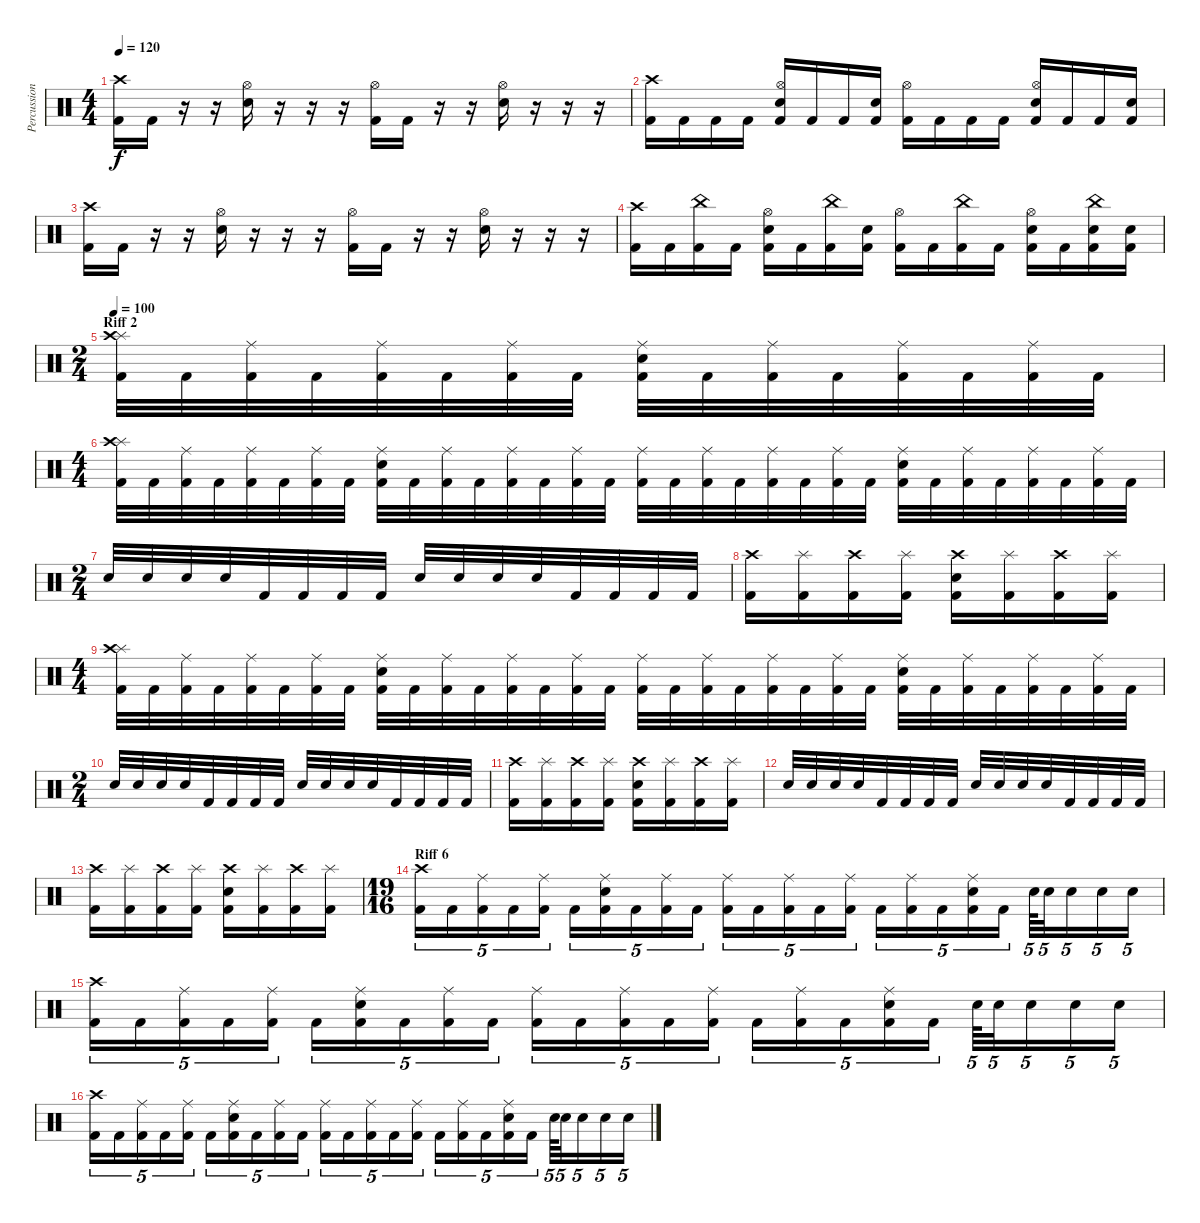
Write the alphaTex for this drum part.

\track ("Percussion" "Percussion") {instrument percussion}
\staff {score}
\articulation defaults
\ts (4 4)
\tempo 120
\clef neutral
\ks c
("Crash high (hit)" "Kick (hit) 2").16{dy f} "Kick (hit) 2".16 r.16 r.16 ("Hi-Hat (open)" "Electric Snare (hit)").16 r.16 r.16 r.16 ("Hi-Hat (open)" "Kick (hit) 2").16 "Kick (hit) 2".16 r.16 r.16 ("Hi-Hat (open)" "Electric Snare (hit)").16 r.16 r.16 r.16 |
("Crash high (hit)" "Kick (hit) 2").16 "Kick (hit) 2".16 "Kick (hit) 2".16 "Kick (hit) 2".16 ("Hi-Hat (open)" "Electric Snare (hit)" "Kick (hit) 2").16 "Kick (hit) 2".16 "Kick (hit) 2".16 ("Electric Snare (hit)" "Kick (hit) 2").16 ("Hi-Hat (open)" "Kick (hit) 2").16 "Kick (hit) 2".16 "Kick (hit) 2".16 "Kick (hit) 2".16 ("Hi-Hat (open)" "Electric Snare (hit)" "Kick (hit) 2").16 "Kick (hit) 2".16 "Kick (hit) 2".16 ("Electric Snare (hit)" "Kick (hit) 2").16 |
("Crash high (hit)" "Kick (hit) 2").16 "Kick (hit) 2".16 r.16 r.16 ("Hi-Hat (open)" "Electric Snare (hit)").16 r.16 r.16 r.16 ("Hi-Hat (open)" "Kick (hit) 2").16 "Kick (hit) 2".16 r.16 r.16 ("Hi-Hat (open)" "Electric Snare (hit)").16 r.16 r.16 r.16 |
("Crash high (hit)" "Kick (hit) 2").16 "Kick (hit) 2".16 ("China (hit)" "Kick (hit) 2").16 "Kick (hit) 2".16 ("Hi-Hat (open)" "Electric Snare (hit)" "Kick (hit) 2").16 "Kick (hit) 2".16 ("China (hit)" "Kick (hit) 2").16 ("Electric Snare (hit)" "Kick (hit) 2").16 ("Hi-Hat (open)" "Kick (hit) 2").16 "Kick (hit) 2".16 ("China (hit)" "Kick (hit) 2").16 "Kick (hit) 2".16 ("Hi-Hat (open)" "Electric Snare (hit)" "Kick (hit) 2").16 "Kick (hit) 2".16 ("China (hit)" "Electric Snare (hit)" "Kick (hit) 2").16 ("Electric Snare (hit)" "Kick (hit) 2").16 |
\ts (2 4)
\section ("" "Riff 2")
\tempo 100
("Splash (hit)" "Crash high (hit)" "Kick (hit) 2").32 "Kick (hit) 2".32 ("Ride (middle)" "Kick (hit) 2").32 "Kick (hit) 2".32 ("Ride (middle)" "Kick (hit) 2").32 "Kick (hit) 2".32 ("Ride (middle)" "Kick (hit) 2").32 "Kick (hit) 2".32 ("Ride (middle)" "Electric Snare (hit)" "Kick (hit) 2").32 "Kick (hit) 2".32 ("Ride (middle)" "Kick (hit) 2").32 "Kick (hit) 2".32 ("Ride (middle)" "Kick (hit) 2").32 "Kick (hit) 2".32 ("Ride (middle)" "Kick (hit) 2").32 "Kick (hit) 2".32 |
\ts (4 4)
("Splash (hit)" "Crash high (hit)" "Kick (hit) 2").32 "Kick (hit) 2".32 ("Ride (middle)" "Kick (hit) 2").32 "Kick (hit) 2".32 ("Ride (middle)" "Kick (hit) 2").32 "Kick (hit) 2".32 ("Ride (middle)" "Kick (hit) 2").32 "Kick (hit) 2".32 ("Ride (middle)" "Electric Snare (hit)" "Kick (hit) 2").32 "Kick (hit) 2".32 ("Ride (middle)" "Kick (hit) 2").32 "Kick (hit) 2".32 ("Ride (middle)" "Kick (hit) 2").32 "Kick (hit) 2".32 ("Ride (middle)" "Kick (hit) 2").32 "Kick (hit) 2".32 ("Ride (middle)" "Kick (hit) 2").32 "Kick (hit) 2".32 ("Ride (middle)" "Kick (hit) 2").32 "Kick (hit) 2".32 ("Ride (middle)" "Kick (hit) 2").32 "Kick (hit) 2".32 ("Ride (middle)" "Kick (hit) 2").32 "Kick (hit) 2".32 ("Ride (middle)" "Electric Snare (hit)" "Kick (hit) 2").32 "Kick (hit) 2".32 ("Ride (middle)" "Kick (hit) 2").32 "Kick (hit) 2".32 ("Ride (middle)" "Kick (hit) 2").32 "Kick (hit) 2".32 ("Ride (middle)" "Kick (hit) 2").32 "Kick (hit) 2".32 |
\ts (2 4)
"Electric Snare (hit)".32 "Electric Snare (hit)".32 "Electric Snare (hit)".32 "Electric Snare (hit)".32 "Kick (hit) 2".32 "Kick (hit) 2".32 "Kick (hit) 2".32 "Kick (hit) 2".32 "Electric Snare (hit)".32 "Electric Snare (hit)".32 "Electric Snare (hit)".32 "Electric Snare (hit)".32 "Kick (hit) 2".32 "Kick (hit) 2".32 "Kick (hit) 2".32 "Kick (hit) 2".32 |
("Crash high (hit)" "Kick (hit) 2").16 ("Splash (hit)" "Kick (hit) 2").16 ("Crash high (hit)" "Kick (hit) 2").16 ("Splash (hit)" "Kick (hit) 2").16 ("Crash high (hit)" "Electric Snare (hit)" "Kick (hit) 2").16 ("Splash (hit)" "Kick (hit) 2").16 ("Crash high (hit)" "Kick (hit) 2").16 ("Splash (hit)" "Kick (hit) 2").16 |
\ts (4 4)
("Splash (hit)" "Crash high (hit)" "Kick (hit) 2").32 "Kick (hit) 2".32 ("Ride (middle)" "Kick (hit) 2").32 "Kick (hit) 2".32 ("Ride (middle)" "Kick (hit) 2").32 "Kick (hit) 2".32 ("Ride (middle)" "Kick (hit) 2").32 "Kick (hit) 2".32 ("Ride (middle)" "Electric Snare (hit)" "Kick (hit) 2").32 "Kick (hit) 2".32 ("Ride (middle)" "Kick (hit) 2").32 "Kick (hit) 2".32 ("Ride (middle)" "Kick (hit) 2").32 "Kick (hit) 2".32 ("Ride (middle)" "Kick (hit) 2").32 "Kick (hit) 2".32 ("Ride (middle)" "Kick (hit) 2").32 "Kick (hit) 2".32 ("Ride (middle)" "Kick (hit) 2").32 "Kick (hit) 2".32 ("Ride (middle)" "Kick (hit) 2").32 "Kick (hit) 2".32 ("Ride (middle)" "Kick (hit) 2").32 "Kick (hit) 2".32 ("Ride (middle)" "Electric Snare (hit)" "Kick (hit) 2").32 "Kick (hit) 2".32 ("Ride (middle)" "Kick (hit) 2").32 "Kick (hit) 2".32 ("Ride (middle)" "Kick (hit) 2").32 "Kick (hit) 2".32 ("Ride (middle)" "Kick (hit) 2").32 "Kick (hit) 2".32 |
\ts (2 4)
"Electric Snare (hit)".32 "Electric Snare (hit)".32 "Electric Snare (hit)".32 "Electric Snare (hit)".32 "Kick (hit) 2".32 "Kick (hit) 2".32 "Kick (hit) 2".32 "Kick (hit) 2".32 "Electric Snare (hit)".32 "Electric Snare (hit)".32 "Electric Snare (hit)".32 "Electric Snare (hit)".32 "Kick (hit) 2".32 "Kick (hit) 2".32 "Kick (hit) 2".32 "Kick (hit) 2".32 |
("Crash high (hit)" "Kick (hit) 2").16 ("Splash (hit)" "Kick (hit) 2").16 ("Crash high (hit)" "Kick (hit) 2").16 ("Splash (hit)" "Kick (hit) 2").16 ("Crash high (hit)" "Electric Snare (hit)" "Kick (hit) 2").16 ("Splash (hit)" "Kick (hit) 2").16 ("Crash high (hit)" "Kick (hit) 2").16 ("Splash (hit)" "Kick (hit) 2").16 |
"Electric Snare (hit)".32 "Electric Snare (hit)".32 "Electric Snare (hit)".32 "Electric Snare (hit)".32 "Kick (hit) 2".32 "Kick (hit) 2".32 "Kick (hit) 2".32 "Kick (hit) 2".32 "Electric Snare (hit)".32 "Electric Snare (hit)".32 "Electric Snare (hit)".32 "Electric Snare (hit)".32 "Kick (hit) 2".32 "Kick (hit) 2".32 "Kick (hit) 2".32 "Kick (hit) 2".32 |
("Crash high (hit)" "Kick (hit) 2").16 ("Splash (hit)" "Kick (hit) 2").16 ("Crash high (hit)" "Kick (hit) 2").16 ("Splash (hit)" "Kick (hit) 2").16 ("Crash high (hit)" "Electric Snare (hit)" "Kick (hit) 2").16 ("Splash (hit)" "Kick (hit) 2").16 ("Crash high (hit)" "Kick (hit) 2").16 ("Splash (hit)" "Kick (hit) 2").16 |
\ts (19 16)
\section ("" "Riff 6")
("Crash high (hit)" "Kick (hit) 2").16{tu (5 4)} "Kick (hit) 2".16{tu (5 4)} ("Ride (middle)" "Kick (hit) 2").16{tu (5 4)} "Kick (hit) 2".16{tu (5 4)} ("Ride (middle)" "Kick (hit) 2").16{tu (5 4)} "Kick (hit) 2".16{tu (5 4)} ("Ride (middle)" "Electric Snare (hit)" "Kick (hit) 2").16{tu (5 4)} "Kick (hit) 2".16{tu (5 4)} ("Ride (middle)" "Kick (hit) 2").16{tu (5 4)} "Kick (hit) 2".16{tu (5 4)} ("Ride (middle)" "Kick (hit) 2").16{tu (5 4)} "Kick (hit) 2".16{tu (5 4)} ("Ride (middle)" "Kick (hit) 2").16{tu (5 4)} "Kick (hit) 2".16{tu (5 4)} ("Ride (middle)" "Kick (hit) 2").16{tu (5 4)} "Kick (hit) 2".16{tu (5 4)} ("Ride (middle)" "Kick (hit) 2").16{tu (5 4)} "Kick (hit) 2".16{tu (5 4)} ("Ride (middle)" "Electric Snare (hit)" "Kick (hit) 2").16{tu (5 4)} "Kick (hit) 2".16{tu (5 4)} "Electric Snare (hit)".64{tu (5 4)} "Electric Snare (hit)".32{tu (5 4)} "Electric Snare (hit)".16{tu (5 4)} "Electric Snare (hit)".16{tu (5 4)} "Electric Snare (hit)".16{tu (5 4)} |
("Crash high (hit)" "Kick (hit) 2").16{tu (5 4)} "Kick (hit) 2".16{tu (5 4)} ("Ride (middle)" "Kick (hit) 2").16{tu (5 4)} "Kick (hit) 2".16{tu (5 4)} ("Ride (middle)" "Kick (hit) 2").16{tu (5 4)} "Kick (hit) 2".16{tu (5 4)} ("Ride (middle)" "Electric Snare (hit)" "Kick (hit) 2").16{tu (5 4)} "Kick (hit) 2".16{tu (5 4)} ("Ride (middle)" "Kick (hit) 2").16{tu (5 4)} "Kick (hit) 2".16{tu (5 4)} ("Ride (middle)" "Kick (hit) 2").16{tu (5 4)} "Kick (hit) 2".16{tu (5 4)} ("Ride (middle)" "Kick (hit) 2").16{tu (5 4)} "Kick (hit) 2".16{tu (5 4)} ("Ride (middle)" "Kick (hit) 2").16{tu (5 4)} "Kick (hit) 2".16{tu (5 4)} ("Ride (middle)" "Kick (hit) 2").16{tu (5 4)} "Kick (hit) 2".16{tu (5 4)} ("Ride (middle)" "Electric Snare (hit)" "Kick (hit) 2").16{tu (5 4)} "Kick (hit) 2".16{tu (5 4)} "Electric Snare (hit)".64{tu (5 4)} "Electric Snare (hit)".32{tu (5 4)} "Electric Snare (hit)".16{tu (5 4)} "Electric Snare (hit)".16{tu (5 4)} "Electric Snare (hit)".16{tu (5 4)} |
("Crash high (hit)" "Kick (hit) 2").16{tu (5 4)} "Kick (hit) 2".16{tu (5 4)} ("Ride (middle)" "Kick (hit) 2").16{tu (5 4)} "Kick (hit) 2".16{tu (5 4)} ("Ride (middle)" "Kick (hit) 2").16{tu (5 4)} "Kick (hit) 2".16{tu (5 4)} ("Ride (middle)" "Electric Snare (hit)" "Kick (hit) 2").16{tu (5 4)} "Kick (hit) 2".16{tu (5 4)} ("Ride (middle)" "Kick (hit) 2").16{tu (5 4)} "Kick (hit) 2".16{tu (5 4)} ("Ride (middle)" "Kick (hit) 2").16{tu (5 4)} "Kick (hit) 2".16{tu (5 4)} ("Ride (middle)" "Kick (hit) 2").16{tu (5 4)} "Kick (hit) 2".16{tu (5 4)} ("Ride (middle)" "Kick (hit) 2").16{tu (5 4)} "Kick (hit) 2".16{tu (5 4)} ("Ride (middle)" "Kick (hit) 2").16{tu (5 4)} "Kick (hit) 2".16{tu (5 4)} ("Ride (middle)" "Electric Snare (hit)" "Kick (hit) 2").16{tu (5 4)} "Kick (hit) 2".16{tu (5 4)} "Electric Snare (hit)".64{tu (5 4)} "Electric Snare (hit)".32{tu (5 4)} "Electric Snare (hit)".16{tu (5 4)} "Electric Snare (hit)".16{tu (5 4)} "Electric Snare (hit)".16{tu (5 4)}
